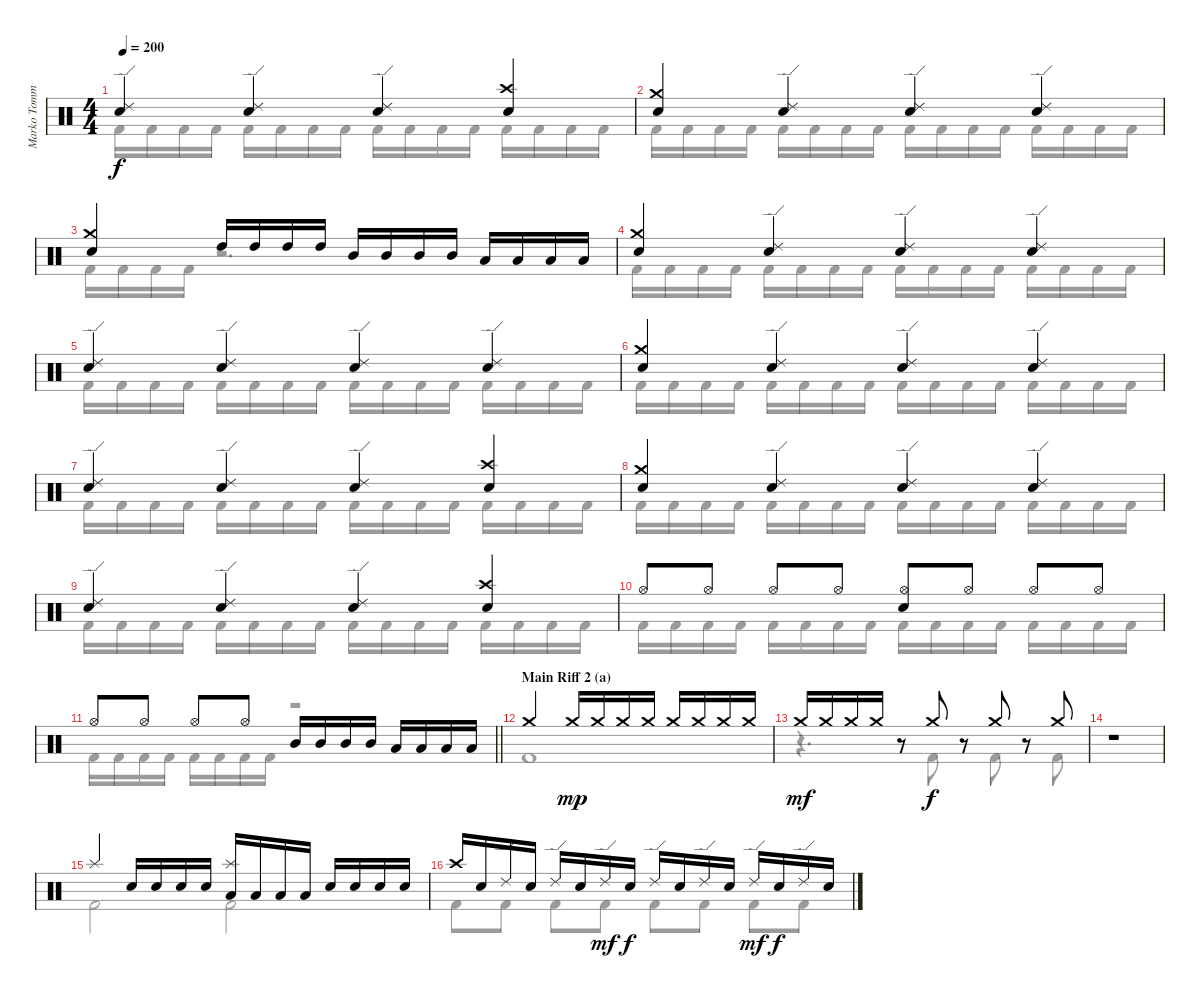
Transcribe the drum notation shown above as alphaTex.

\track ("Marko Tommila (drums)" "Marko Tomm") {instrument percussion}
\staff {score}
\articulation defaults
\voice
\ts (4 4)
\tempo 200
\clef neutral
\ks aminor
("Ride (edge) 2" "Electric Snare (hit)").4{dy f} ("Ride (edge) 2" "Electric Snare (hit)").4 ("Ride (edge) 2" "Electric Snare (hit)").4 ("Crash high (hit)" "Electric Snare (hit)").4 |
("Crash medium (hit)" "Electric Snare (hit)").4 ("Ride (edge) 2" "Electric Snare (hit)").4 ("Ride (edge) 2" "Electric Snare (hit)").4 ("Ride (edge) 2" "Electric Snare (hit)").4 |
("Crash medium (hit)" "Electric Snare (hit)").4 "High Tom (hit)".16 "High Tom (hit)".16 "High Tom (hit)".16 "High Tom (hit)".16 "Mid Tom (hit)".16 "Mid Tom (hit)".16 "Mid Tom (hit)".16 "Mid Tom (hit)".16 "Low Tom (hit)".16 "Low Tom (hit)".16 "Low Tom (hit)".16 "Low Tom (hit)".16 |
("Crash medium (hit)" "Electric Snare (hit)").4 ("Ride (edge) 2" "Electric Snare (hit)").4 ("Ride (edge) 2" "Electric Snare (hit)").4 ("Ride (edge) 2" "Electric Snare (hit)").4 |
("Ride (edge) 2" "Electric Snare (hit)").4 ("Ride (edge) 2" "Electric Snare (hit)").4 ("Ride (edge) 2" "Electric Snare (hit)").4 ("Ride (edge) 2" "Electric Snare (hit)").4 |
("Crash medium (hit)" "Electric Snare (hit)").4 ("Ride (edge) 2" "Electric Snare (hit)").4 ("Ride (edge) 2" "Electric Snare (hit)").4 ("Ride (edge) 2" "Electric Snare (hit)").4 |
("Ride (edge) 2" "Electric Snare (hit)").4 ("Ride (edge) 2" "Electric Snare (hit)").4 ("Ride (edge) 2" "Electric Snare (hit)").4 ("Crash high (hit)" "Electric Snare (hit)").4 |
("Crash medium (hit)" "Electric Snare (hit)").4 ("Ride (edge) 2" "Electric Snare (hit)").4 ("Ride (edge) 2" "Electric Snare (hit)").4 ("Ride (edge) 2" "Electric Snare (hit)").4 |
("Ride (edge) 2" "Electric Snare (hit)").4 ("Ride (edge) 2" "Electric Snare (hit)").4 ("Ride (edge) 2" "Electric Snare (hit)").4 ("Crash high (hit)" "Electric Snare (hit)").4 |
"Hi-Hat (open)".8 "Hi-Hat (open)".8 "Hi-Hat (open)".8 "Hi-Hat (open)".8 ("Hi-Hat (open)" "Electric Snare (hit)").8 "Hi-Hat (open)".8 "Hi-Hat (open)".8 "Hi-Hat (open)".8 |
\barLineRight lightlight "Hi-Hat (open)".8 "Hi-Hat (open)".8 "Hi-Hat (open)".8 "Hi-Hat (open)".8 "Mid Tom (hit)".16 "Mid Tom (hit)".16 "Mid Tom (hit)".16 "Mid Tom (hit)".16 "Low Tom (hit)".16 "Low Tom (hit)".16 "Low Tom (hit)".16 "Low Tom (hit)".16
|
\section ("" "Main Riff 2 (a)")
"Crash medium (hit)".2 "Crash medium (hit)".16{dy mp} "Crash medium (hit)".16 "Crash medium (hit)".16 "Crash medium (hit)".16 "Crash medium (hit)".16 "Crash medium (hit)".16 "Crash medium (hit)".16 "Crash medium (hit)".16 |
"Crash medium (hit)".16{dy mf} "Crash medium (hit)".16 "Crash medium (hit)".16 "Crash medium (hit)".16 r.8 "Crash medium (hit)".8{dy f} r.8 "Crash medium (hit)".8 r.8 "Crash medium (hit)".8 |
r.1 |
"Splash (hit)".4 "Electric Snare (hit)".16 "Electric Snare (hit)".16 "Electric Snare (hit)".16 "Electric Snare (hit)".16 ("Splash (hit)" "Low Tom (hit)").16 "Low Tom (hit)".16 "Low Tom (hit)".16 "Low Tom (hit)".16 "Electric Snare (hit)".16 "Electric Snare (hit)".16 "Electric Snare (hit)".16 "Electric Snare (hit)".16 |
\ks c "Crash high (hit)".16 "Electric Snare (hit)".16 "Ride (edge) 2".16 "Electric Snare (hit)".16 "Ride (edge) 2".16 "Electric Snare (hit)".16 "Ride (edge) 2".16{dy mf} "Electric Snare (hit)".16{dy f} "Ride (edge) 2".16 "Electric Snare (hit)".16 "Ride (edge) 2".16 "Electric Snare (hit)".16 "Ride (edge) 2".16{dy mf} "Electric Snare (hit)".16{dy f} "Ride (edge) 2".16 "Electric Snare (hit)".16
\voice
\clef neutral
\ottava regular
\simile none
\ks aminor "Kick (hit) 2".16{dy f} "Kick (hit) 2".16 "Kick (hit) 2".16 "Kick (hit) 2".16 "Kick (hit) 2".16 "Kick (hit) 2".16 "Kick (hit) 2".16 "Kick (hit) 2".16 "Kick (hit) 2".16 "Kick (hit) 2".16 "Kick (hit) 2".16 "Kick (hit) 2".16 "Kick (hit) 2".16 "Kick (hit) 2".16 "Kick (hit) 2".16 "Kick (hit) 2".16
|
"Kick (hit) 2".16 "Kick (hit) 2".16 "Kick (hit) 2".16 "Kick (hit) 2".16 "Kick (hit) 2".16 "Kick (hit) 2".16 "Kick (hit) 2".16 "Kick (hit) 2".16 "Kick (hit) 2".16 "Kick (hit) 2".16 "Kick (hit) 2".16 "Kick (hit) 2".16 "Kick (hit) 2".16 "Kick (hit) 2".16 "Kick (hit) 2".16 "Kick (hit) 2".16 |
"Kick (hit) 2".16 "Kick (hit) 2".16 "Kick (hit) 2".16 "Kick (hit) 2".16 r.2{d} |
"Kick (hit) 2".16 "Kick (hit) 2".16 "Kick (hit) 2".16 "Kick (hit) 2".16 "Kick (hit) 2".16 "Kick (hit) 2".16 "Kick (hit) 2".16 "Kick (hit) 2".16 "Kick (hit) 2".16 "Kick (hit) 2".16 "Kick (hit) 2".16 "Kick (hit) 2".16 "Kick (hit) 2".16 "Kick (hit) 2".16 "Kick (hit) 2".16 "Kick (hit) 2".16 |
"Kick (hit) 2".16 "Kick (hit) 2".16 "Kick (hit) 2".16 "Kick (hit) 2".16 "Kick (hit) 2".16 "Kick (hit) 2".16 "Kick (hit) 2".16 "Kick (hit) 2".16 "Kick (hit) 2".16 "Kick (hit) 2".16 "Kick (hit) 2".16 "Kick (hit) 2".16 "Kick (hit) 2".16 "Kick (hit) 2".16 "Kick (hit) 2".16 "Kick (hit) 2".16 |
"Kick (hit) 2".16 "Kick (hit) 2".16 "Kick (hit) 2".16 "Kick (hit) 2".16 "Kick (hit) 2".16 "Kick (hit) 2".16 "Kick (hit) 2".16 "Kick (hit) 2".16 "Kick (hit) 2".16 "Kick (hit) 2".16 "Kick (hit) 2".16 "Kick (hit) 2".16 "Kick (hit) 2".16 "Kick (hit) 2".16 "Kick (hit) 2".16 "Kick (hit) 2".16 |
"Kick (hit) 2".16 "Kick (hit) 2".16 "Kick (hit) 2".16 "Kick (hit) 2".16 "Kick (hit) 2".16 "Kick (hit) 2".16 "Kick (hit) 2".16 "Kick (hit) 2".16 "Kick (hit) 2".16 "Kick (hit) 2".16 "Kick (hit) 2".16 "Kick (hit) 2".16 "Kick (hit) 2".16 "Kick (hit) 2".16 "Kick (hit) 2".16 "Kick (hit) 2".16 |
"Kick (hit) 2".16 "Kick (hit) 2".16 "Kick (hit) 2".16 "Kick (hit) 2".16 "Kick (hit) 2".16 "Kick (hit) 2".16 "Kick (hit) 2".16 "Kick (hit) 2".16 "Kick (hit) 2".16 "Kick (hit) 2".16 "Kick (hit) 2".16 "Kick (hit) 2".16 "Kick (hit) 2".16 "Kick (hit) 2".16 "Kick (hit) 2".16 "Kick (hit) 2".16 |
"Kick (hit) 2".16 "Kick (hit) 2".16 "Kick (hit) 2".16 "Kick (hit) 2".16 "Kick (hit) 2".16 "Kick (hit) 2".16 "Kick (hit) 2".16 "Kick (hit) 2".16 "Kick (hit) 2".16 "Kick (hit) 2".16 "Kick (hit) 2".16 "Kick (hit) 2".16 "Kick (hit) 2".16 "Kick (hit) 2".16 "Kick (hit) 2".16 "Kick (hit) 2".16 |
"Kick (hit) 2".16 "Kick (hit) 2".16 "Kick (hit) 2".16 "Kick (hit) 2".16 "Kick (hit) 2".16 "Kick (hit) 2".16 "Kick (hit) 2".16 "Kick (hit) 2".16 "Kick (hit) 2".16 "Kick (hit) 2".16 "Kick (hit) 2".16 "Kick (hit) 2".16 "Kick (hit) 2".16 "Kick (hit) 2".16 "Kick (hit) 2".16 "Kick (hit) 2".16 |
\barLineRight lightlight "Kick (hit) 2".16 "Kick (hit) 2".16 "Kick (hit) 2".16 "Kick (hit) 2".16 "Kick (hit) 2".16 "Kick (hit) 2".16 "Kick (hit) 2".16 "Kick (hit) 2".16
r.2 |
"Kick (hit) 2".1 |
r.4{d} "Kick (hit) 2".8 r.8 "Kick (hit) 2".8 r.8 "Kick (hit) 2".8 |
|
"Kick (hit) 2".2 "Kick (hit) 2".2 |
\ks c "Kick (hit) 2".8 "Kick (hit) 2".8 "Kick (hit) 2".8 "Kick (hit) 2".8 "Kick (hit) 2".8 "Kick (hit) 2".8 "Kick (hit) 2".8 "Kick (hit) 2".8
